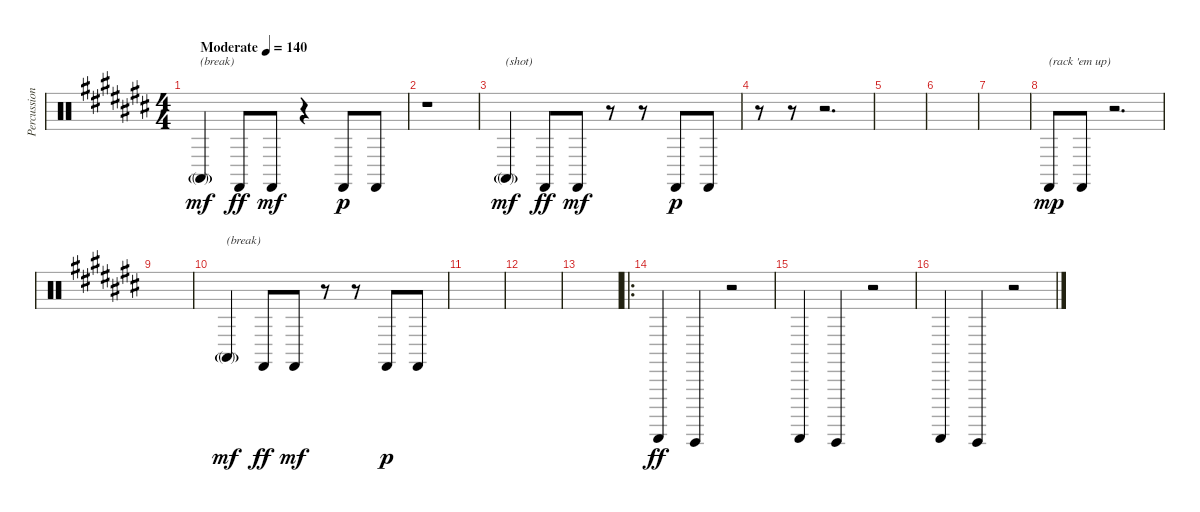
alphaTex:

\track ("Percussion" "Percussion") {instrument percussion}
\staff {score}
\articulation defaults
\ts (4 4)
\tempo (140 "Moderate")
\clef neutral
\ks c# "Conga high (mute)"{g}.4{txt "(break)" dy mf} "Castanets (hit)".8{dy ff} "Castanets (hit)".8{dy mf}
r.4 "Castanets (hit)".8{dy p} "Castanets (hit)".8 |
r.1 |
"Conga high (mute)"{g}.4{txt "(shot)" dy mf} "Castanets (hit)".8{dy ff} "Castanets (hit)".8{dy mf} r.8 r.8 "Castanets (hit)".8{dy p} "Castanets (hit)".8 |
r.8 r.8 r.2{d} |
|
|
|
"Castanets (hit)".8{txt "(rack 'em up)" dy mp} "Castanets (hit)".8 r.2{d} |
|
"Conga high (mute)"{g}.4{txt "(break)" dy mf} "Castanets (hit)".8{dy ff} "Castanets (hit)".8{dy mf} r.8 r.8 "Castanets (hit)".8{dy p} "Castanets (hit)".8 |
|
|
|
\ro "Guiro (scrap-return)".4{dy ff} "Guiro (hit)".4
r.2 |
"Guiro (scrap-return)".4 "Guiro (hit)".4 r.2 |
"Guiro (scrap-return)".4 "Guiro (hit)".4 r.2
